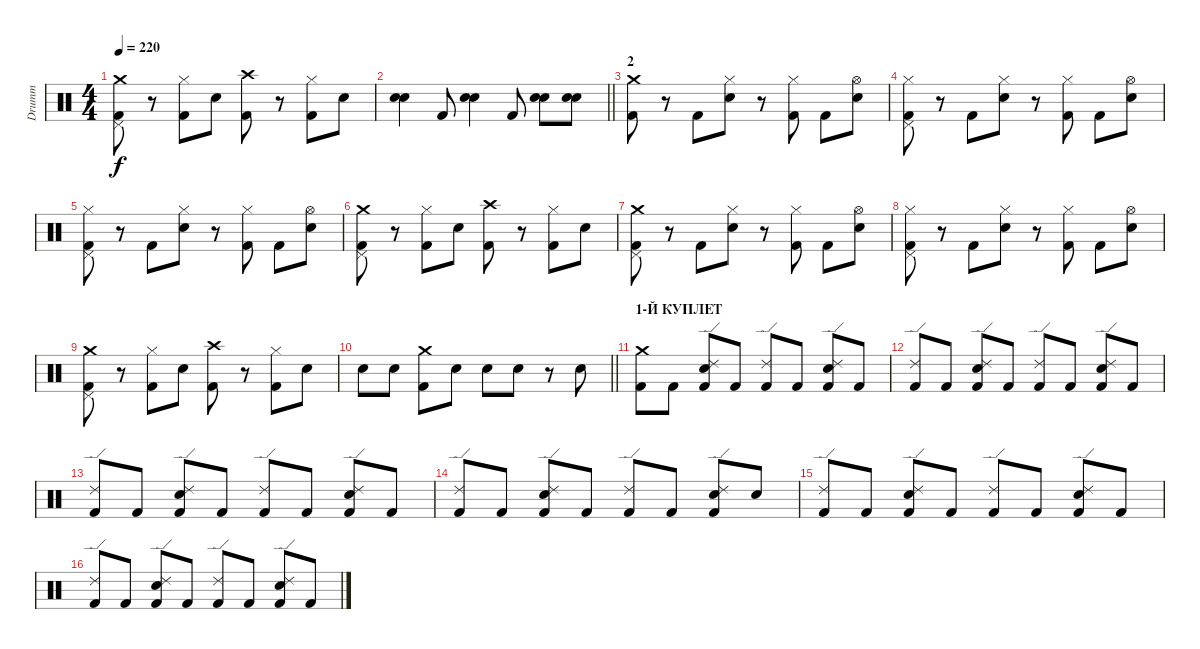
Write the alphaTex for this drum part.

\track ("Drumm" "Drumm") {instrument percussion}
\staff {score}
\articulation defaults
\ts (4 4)
\tempo 220
\clef neutral
\ks c
("Crash medium (hit)" "Pedal Hi-Hat (hit)" "Kick (hit) 2").8{dy f} r.8 ("Hi-Hat (closed)" "Kick (hit) 2").8 "Snare (hit) 2".8 ("Crash high (hit)" "Kick (hit) 2").8 r.8 ("Hi-Hat (closed)" "Kick (hit) 2").8 "Snare (hit) 2".8 |
\barLineRight lightlight
("Snare (hit) 2" "Snare (hit) 2").4 "Kick (hit) 2".8 ("Snare (hit) 2" "Snare (hit) 2").4 "Kick (hit) 2".8 ("Snare (hit) 2" "Snare (hit) 2").8 ("Snare (hit) 2" "Snare (hit) 2").8 |
\section ("" "2")
("Crash medium (hit)" "Kick (hit) 2").8 r.8 "Kick (hit) 2".8 ("Hi-Hat (closed)" "Snare (hit) 2").8 r.8 ("Hi-Hat (closed)" "Kick (hit) 2").8 "Kick (hit) 2".8 ("Hi-Hat (open)" "Snare (hit) 2").8 |
("Hi-Hat (closed)" "Pedal Hi-Hat (hit)" "Kick (hit) 2").8 r.8 "Kick (hit) 2".8 ("Hi-Hat (closed)" "Snare (hit) 2").8 r.8 ("Hi-Hat (closed)" "Kick (hit) 2").8 "Kick (hit) 2".8 ("Hi-Hat (open)" "Snare (hit) 2").8 |
("Hi-Hat (closed)" "Pedal Hi-Hat (hit)" "Kick (hit) 2").8 r.8 "Kick (hit) 2".8 ("Hi-Hat (closed)" "Snare (hit) 2").8 r.8 ("Hi-Hat (closed)" "Kick (hit) 2").8 "Kick (hit) 2".8 ("Hi-Hat (open)" "Snare (hit) 2").8 |
("Crash medium (hit)" "Pedal Hi-Hat (hit)" "Kick (hit) 2").8 r.8 ("Hi-Hat (closed)" "Kick (hit) 2").8 "Snare (hit) 2".8 ("Crash high (hit)" "Kick (hit) 2").8 r.8 ("Hi-Hat (closed)" "Kick (hit) 2").8 "Snare (hit) 2".8 |
("Crash medium (hit)" "Pedal Hi-Hat (hit)" "Kick (hit) 2").8 r.8 "Kick (hit) 2".8 ("Hi-Hat (closed)" "Snare (hit) 2").8 r.8 ("Hi-Hat (closed)" "Kick (hit) 2").8 "Kick (hit) 2".8 ("Hi-Hat (open)" "Snare (hit) 2").8 |
("Hi-Hat (closed)" "Pedal Hi-Hat (hit)" "Kick (hit) 2").8 r.8 "Kick (hit) 2".8 ("Hi-Hat (closed)" "Snare (hit) 2").8 r.8 ("Hi-Hat (closed)" "Kick (hit) 2").8 "Kick (hit) 2".8 ("Hi-Hat (open)" "Snare (hit) 2").8 |
("Crash medium (hit)" "Pedal Hi-Hat (hit)" "Kick (hit) 2").8 r.8 ("Hi-Hat (closed)" "Kick (hit) 2").8 "Snare (hit) 2".8 ("Crash high (hit)" "Kick (hit) 2").8 r.8 ("Hi-Hat (closed)" "Kick (hit) 2").8 "Snare (hit) 2".8 |
\barLineRight lightlight "Snare (hit) 2".8 "Snare (hit) 2".8
("Crash medium (hit)" "Kick (hit) 2").8 "Snare (hit) 2".8 "Snare (hit) 2".8 "Snare (hit) 2".8 r.8 "Snare (hit) 2".8 |
\section ("" "1-Й КУПЛЕТ")
("Crash medium (hit)" "Kick (hit) 2").8 "Kick (hit) 2".8 ("Ride (edge) 2" "Snare (hit) 2" "Kick (hit) 2").8 "Kick (hit) 2".8 ("Ride (edge) 2" "Kick (hit) 2").8 "Kick (hit) 2".8 ("Ride (edge) 2" "Snare (hit) 2" "Kick (hit) 2").8 "Kick (hit) 2".8 |
("Ride (edge) 2" "Kick (hit) 2").8 "Kick (hit) 2".8 ("Ride (edge) 2" "Snare (hit) 2" "Kick (hit) 2").8 "Kick (hit) 2".8 ("Ride (edge) 2" "Kick (hit) 2").8 "Kick (hit) 2".8 ("Ride (edge) 2" "Snare (hit) 2" "Kick (hit) 2").8 "Kick (hit) 2".8 |
("Ride (edge) 2" "Kick (hit) 2").8 "Kick (hit) 2".8 ("Ride (edge) 2" "Snare (hit) 2" "Kick (hit) 2").8 "Kick (hit) 2".8 ("Ride (edge) 2" "Kick (hit) 2").8 "Kick (hit) 2".8 ("Ride (edge) 2" "Snare (hit) 2" "Kick (hit) 2").8 "Kick (hit) 2".8 |
("Ride (edge) 2" "Kick (hit) 2").8 "Kick (hit) 2".8 ("Ride (edge) 2" "Snare (hit) 2" "Kick (hit) 2").8 "Kick (hit) 2".8 ("Ride (edge) 2" "Kick (hit) 2").8 "Kick (hit) 2".8 ("Ride (edge) 2" "Snare (hit) 2" "Kick (hit) 2").8 "Snare (hit) 2".8 |
("Ride (edge) 2" "Kick (hit) 2").8 "Kick (hit) 2".8 ("Ride (edge) 2" "Snare (hit) 2" "Kick (hit) 2").8 "Kick (hit) 2".8 ("Ride (edge) 2" "Kick (hit) 2").8 "Kick (hit) 2".8 ("Ride (edge) 2" "Snare (hit) 2" "Kick (hit) 2").8 "Kick (hit) 2".8 |
("Ride (edge) 2" "Kick (hit) 2").8 "Kick (hit) 2".8 ("Ride (edge) 2" "Snare (hit) 2" "Kick (hit) 2").8 "Kick (hit) 2".8 ("Ride (edge) 2" "Kick (hit) 2").8 "Kick (hit) 2".8 ("Ride (edge) 2" "Snare (hit) 2" "Kick (hit) 2").8 "Kick (hit) 2".8
